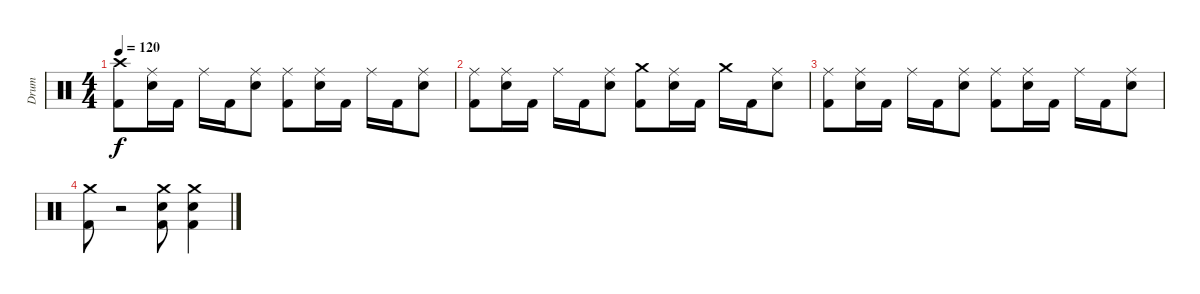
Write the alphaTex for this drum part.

\track ("Drum" "Drum") {instrument percussion}
\staff {score}
\articulation defaults
\ts (4 4)
\tempo 120
\clef neutral
\ks c
("Crash high (hit)" "Kick (hit) 2").8{dy f} ("Ride (middle)" "Electric Snare (hit)").16 "Kick (hit) 2".16 "Ride (middle)".16 "Kick (hit) 2".16 ("Ride (middle)" "Electric Snare (hit)").8 ("Ride (middle)" "Kick (hit) 2").8 ("Ride (middle)" "Electric Snare (hit)").16 "Kick (hit) 2".16 "Ride (middle)".16 "Kick (hit) 2".16 ("Ride (middle)" "Electric Snare (hit)").8 |
("Ride (middle)" "Kick (hit) 2").8 ("Ride (middle)" "Electric Snare (hit)").16 "Kick (hit) 2".16 "Ride (middle)".16 "Kick (hit) 2".16 ("Ride (middle)" "Electric Snare (hit)").8 ("Crash medium (hit)" "Kick (hit) 2").8 ("Ride (middle)" "Electric Snare (hit)").16 "Kick (hit) 2".16 "Crash medium (hit)".16 "Kick (hit) 2".16 ("Ride (middle)" "Electric Snare (hit)").8 |
("Ride (middle)" "Kick (hit) 2").8 ("Ride (middle)" "Electric Snare (hit)").16 "Kick (hit) 2".16 "Ride (middle)".16 "Kick (hit) 2".16 ("Ride (middle)" "Electric Snare (hit)").8 ("Ride (middle)" "Kick (hit) 2").8 ("Ride (middle)" "Electric Snare (hit)").16 "Kick (hit) 2".16 "Ride (middle)".16 "Kick (hit) 2".16 ("Ride (middle)" "Electric Snare (hit)").8 |
("Crash medium (hit)" "Kick (hit) 2").8 r.2 ("Crash medium (hit)" "Electric Snare (hit)" "Kick (hit) 2").8 ("Crash medium (hit)" "Electric Snare (hit)" "Kick (hit) 2").4
